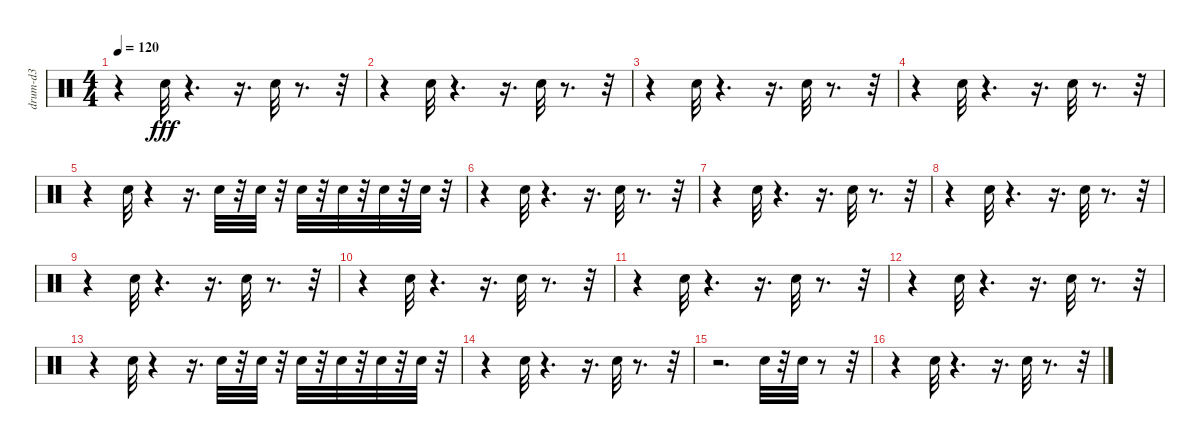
\track ("drum-d3" "drum-d3") {instrument percussion}
\staff {score}
\articulation defaults
\ts (4 4)
\tempo 120
\clef neutral
\ks c
r.4{dy fff} "Snare (hit) 2".32 r.4{d} r.16{d} "Snare (hit) 2".32 r.8{d} r.32 |
r.4 "Snare (hit) 2".32 r.4{d} r.16{d} "Snare (hit) 2".32 r.8{d} r.32 |
r.4 "Snare (hit) 2".32 r.4{d} r.16{d} "Snare (hit) 2".32 r.8{d} r.32 |
r.4 "Snare (hit) 2".32 r.4{d} r.16{d} "Snare (hit) 2".32 r.8{d} r.32 |
r.4 "Snare (hit) 2".32 r.4 r.16{d} "Snare (hit) 2".32 r.32 "Snare (hit) 2".32 r.32 "Snare (hit) 2".32 r.32 "Snare (hit) 2".32 r.32 "Snare (hit) 2".32 r.32 "Snare (hit) 2".32 r.32 |
r.4 "Snare (hit) 2".32 r.4{d} r.16{d} "Snare (hit) 2".32 r.8{d} r.32 |
r.4 "Snare (hit) 2".32 r.4{d} r.16{d} "Snare (hit) 2".32 r.8{d} r.32 |
r.4 "Snare (hit) 2".32 r.4{d} r.16{d} "Snare (hit) 2".32 r.8{d} r.32 |
r.4 "Snare (hit) 2".32 r.4{d} r.16{d} "Snare (hit) 2".32 r.8{d} r.32 |
r.4 "Snare (hit) 2".32 r.4{d} r.16{d} "Snare (hit) 2".32 r.8{d} r.32 |
r.4 "Snare (hit) 2".32 r.4{d} r.16{d} "Snare (hit) 2".32 r.8{d} r.32 |
r.4 "Snare (hit) 2".32 r.4{d} r.16{d} "Snare (hit) 2".32 r.8{d} r.32 |
r.4 "Snare (hit) 2".32 r.4 r.16{d} "Snare (hit) 2".32 r.32 "Snare (hit) 2".32 r.32 "Snare (hit) 2".32 r.32 "Snare (hit) 2".32 r.32 "Snare (hit) 2".32 r.32 "Snare (hit) 2".32 r.32 |
r.4 "Snare (hit) 2".32 r.4{d} r.16{d} "Snare (hit) 2".32 r.8{d} r.32 |
r.2{d} "Snare (hit) 2".32 r.32 "Snare (hit) 2".32 r.8 r.32 |
r.4 "Snare (hit) 2".32 r.4{d} r.16{d} "Snare (hit) 2".32 r.8{d} r.32
